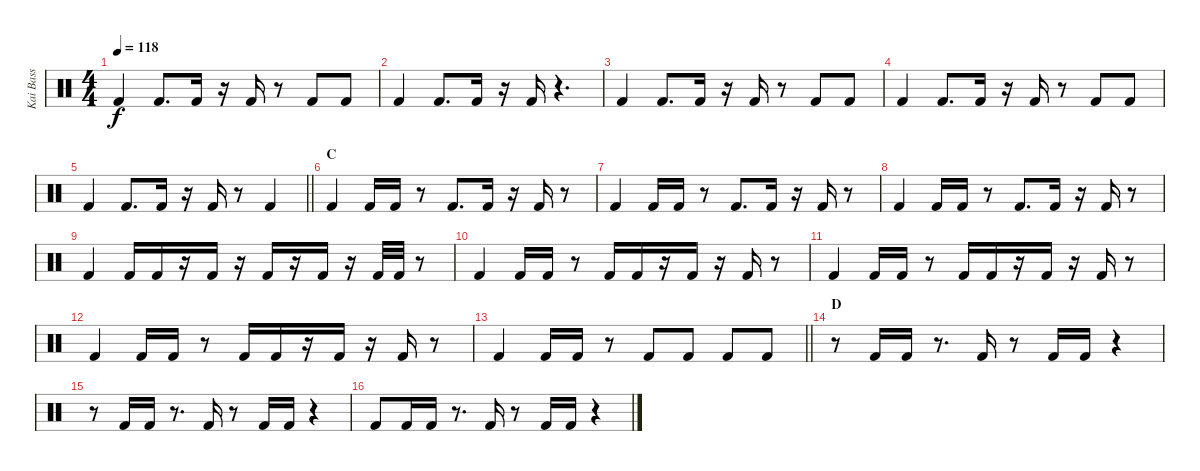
\track ("Kai Bass" "Kai Bass") {instrument percussion}
\staff {score}
\articulation defaults
\ts (4 4)
\tempo 118
\clef neutral
\ks c "Kick (hit) 2".4{dy f} "Kick (hit) 2".8{d} "Kick (hit) 2".16
r.16 "Kick (hit) 2".16 r.8 "Kick (hit) 2".8 "Kick (hit) 2".8 |
"Kick (hit) 2".4 "Kick (hit) 2".8{d} "Kick (hit) 2".16 r.16 "Kick (hit) 2".16 r.4{d} |
"Kick (hit) 2".4 "Kick (hit) 2".8{d} "Kick (hit) 2".16 r.16 "Kick (hit) 2".16 r.8 "Kick (hit) 2".8 "Kick (hit) 2".8 |
"Kick (hit) 2".4 "Kick (hit) 2".8{d} "Kick (hit) 2".16 r.16 "Kick (hit) 2".16 r.8 "Kick (hit) 2".8 "Kick (hit) 2".8 |
\barLineRight lightlight "Kick (hit) 2".4 "Kick (hit) 2".8{d} "Kick (hit) 2".16
r.16 "Kick (hit) 2".16 r.8 "Kick (hit) 2".4 |
\section ("" "C")
"Kick (hit) 2".4 "Kick (hit) 2".16 "Kick (hit) 2".16 r.8 "Kick (hit) 2".8{d} "Kick (hit) 2".16 r.16 "Kick (hit) 2".16 r.8 |
"Kick (hit) 2".4 "Kick (hit) 2".16 "Kick (hit) 2".16 r.8 "Kick (hit) 2".8{d} "Kick (hit) 2".16 r.16 "Kick (hit) 2".16 r.8 |
"Kick (hit) 2".4 "Kick (hit) 2".16 "Kick (hit) 2".16 r.8 "Kick (hit) 2".8{d} "Kick (hit) 2".16 r.16 "Kick (hit) 2".16 r.8 |
"Kick (hit) 2".4 "Kick (hit) 2".16 "Kick (hit) 2".16 r.16 "Kick (hit) 2".16 r.16 "Kick (hit) 2".16 r.16 "Kick (hit) 2".16 r.16 "Kick (hit) 2".32 "Kick (hit) 2".32 r.8 |
"Kick (hit) 2".4 "Kick (hit) 2".16 "Kick (hit) 2".16 r.8 "Kick (hit) 2".16 "Kick (hit) 2".16 r.16 "Kick (hit) 2".16 r.16 "Kick (hit) 2".16 r.8 |
"Kick (hit) 2".4 "Kick (hit) 2".16 "Kick (hit) 2".16 r.8 "Kick (hit) 2".16 "Kick (hit) 2".16 r.16 "Kick (hit) 2".16 r.16 "Kick (hit) 2".16 r.8 |
"Kick (hit) 2".4 "Kick (hit) 2".16 "Kick (hit) 2".16 r.8 "Kick (hit) 2".16 "Kick (hit) 2".16 r.16 "Kick (hit) 2".16 r.16 "Kick (hit) 2".16 r.8 |
\barLineRight lightlight "Kick (hit) 2".4 "Kick (hit) 2".16 "Kick (hit) 2".16
r.8 "Kick (hit) 2".8 "Kick (hit) 2".8 "Kick (hit) 2".8 "Kick (hit) 2".8 |
\section ("" "D")
r.8 "Kick (hit) 2".16 "Kick (hit) 2".16 r.8{d} "Kick (hit) 2".16 r.8 "Kick (hit) 2".16 "Kick (hit) 2".16 r.4 |
r.8 "Kick (hit) 2".16 "Kick (hit) 2".16 r.8{d} "Kick (hit) 2".16 r.8 "Kick (hit) 2".16 "Kick (hit) 2".16 r.4 |
"Kick (hit) 2".8 "Kick (hit) 2".16 "Kick (hit) 2".16 r.8{d} "Kick (hit) 2".16 r.8 "Kick (hit) 2".16 "Kick (hit) 2".16 r.4
